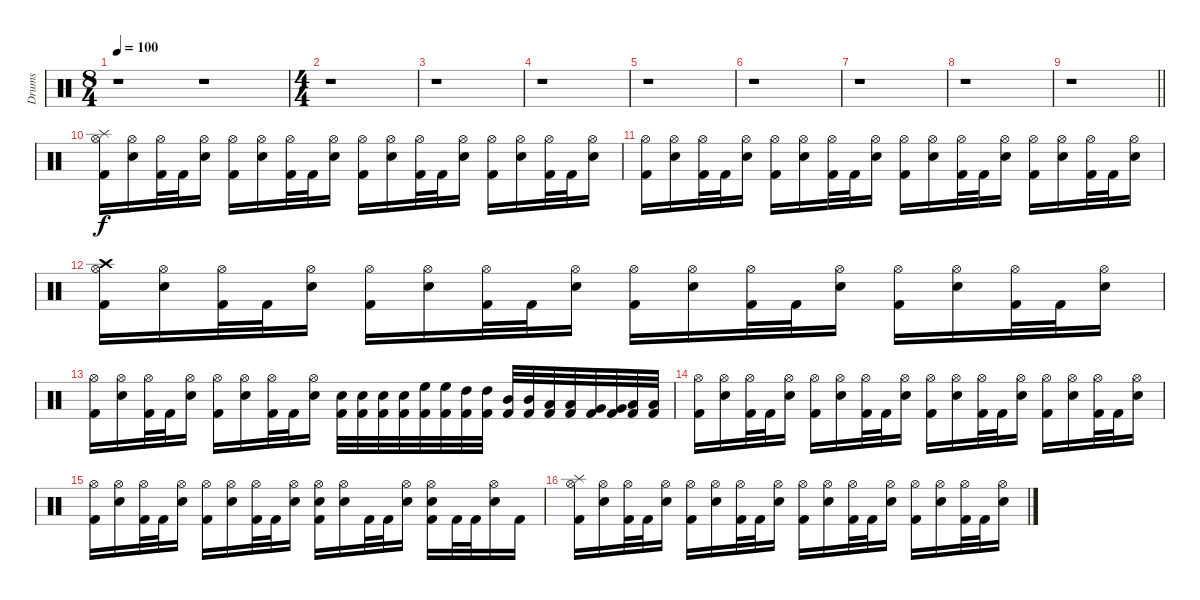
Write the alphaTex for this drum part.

\track ("Drums" "Drums") {instrument percussion}
\staff {score}
\articulation defaults
\ts (8 4)
\tempo 100
\clef neutral
\ks c
r.1{dy f} r.1 |
\ts (4 4)
r.1 |
r.1 |
r.1 |
r.1 |
r.1 |
r.1 |
r.1 |
\barLineRight lightlight
r.1 |
\section ("" "")
("Kick (hit) 2" "Hi-Hat (open)" "Splash (hit)").16 ("Electric Snare (hit)" "Hi-Hat (open)").16 ("Kick (hit) 2" "Hi-Hat (open)").32 "Kick (hit) 2".32 ("Electric Snare (hit)" "Hi-Hat (open)").16 ("Kick (hit) 2" "Hi-Hat (open)").16 ("Electric Snare (hit)" "Hi-Hat (open)").16 ("Kick (hit) 2" "Hi-Hat (open)").32 "Kick (hit) 2".32 ("Electric Snare (hit)" "Hi-Hat (open)").16 ("Kick (hit) 2" "Hi-Hat (open)").16 ("Electric Snare (hit)" "Hi-Hat (open)").16 ("Kick (hit) 2" "Hi-Hat (open)").32 "Kick (hit) 2".32 ("Electric Snare (hit)" "Hi-Hat (open)").16 ("Kick (hit) 2" "Hi-Hat (open)").16 ("Electric Snare (hit)" "Hi-Hat (open)").16 ("Kick (hit) 2" "Hi-Hat (open)").32 "Kick (hit) 2".32 ("Electric Snare (hit)" "Hi-Hat (open)").16 |
("Kick (hit) 2" "Hi-Hat (open)").16 ("Electric Snare (hit)" "Hi-Hat (open)").16 ("Kick (hit) 2" "Hi-Hat (open)").32 "Kick (hit) 2".32 ("Electric Snare (hit)" "Hi-Hat (open)").16 ("Kick (hit) 2" "Hi-Hat (open)").16 ("Electric Snare (hit)" "Hi-Hat (open)").16 ("Kick (hit) 2" "Hi-Hat (open)").32 "Kick (hit) 2".32 ("Electric Snare (hit)" "Hi-Hat (open)").16 ("Kick (hit) 2" "Hi-Hat (open)").16 ("Electric Snare (hit)" "Hi-Hat (open)").16 ("Kick (hit) 2" "Hi-Hat (open)").32 "Kick (hit) 2".32 ("Electric Snare (hit)" "Hi-Hat (open)").16 ("Kick (hit) 2" "Hi-Hat (open)").16 ("Electric Snare (hit)" "Hi-Hat (open)").16 ("Kick (hit) 2" "Hi-Hat (open)").32 "Kick (hit) 2".32 ("Electric Snare (hit)" "Hi-Hat (open)").16 |
("Kick (hit) 2" "Hi-Hat (open)" "Crash high (hit)").16 ("Electric Snare (hit)" "Hi-Hat (open)").16 ("Kick (hit) 2" "Hi-Hat (open)").32 "Kick (hit) 2".32 ("Electric Snare (hit)" "Hi-Hat (open)").16 ("Kick (hit) 2" "Hi-Hat (open)").16 ("Electric Snare (hit)" "Hi-Hat (open)").16 ("Kick (hit) 2" "Hi-Hat (open)").32 "Kick (hit) 2".32 ("Electric Snare (hit)" "Hi-Hat (open)").16 ("Kick (hit) 2" "Hi-Hat (open)").16 ("Electric Snare (hit)" "Hi-Hat (open)").16 ("Kick (hit) 2" "Hi-Hat (open)").32 "Kick (hit) 2".32 ("Electric Snare (hit)" "Hi-Hat (open)").16 ("Kick (hit) 2" "Hi-Hat (open)").16 ("Electric Snare (hit)" "Hi-Hat (open)").16 ("Kick (hit) 2" "Hi-Hat (open)").32 "Kick (hit) 2".32 ("Electric Snare (hit)" "Hi-Hat (open)").16 |
("Kick (hit) 2" "Hi-Hat (open)").16 ("Electric Snare (hit)" "Hi-Hat (open)").16 ("Kick (hit) 2" "Hi-Hat (open)").32 "Kick (hit) 2".32 ("Electric Snare (hit)" "Hi-Hat (open)").16 ("Kick (hit) 2" "Hi-Hat (open)").16 ("Electric Snare (hit)" "Hi-Hat (open)").16 ("Kick (hit) 2" "Hi-Hat (open)").32 "Kick (hit) 2".32 ("Electric Snare (hit)" "Hi-Hat (open)").16 ("Kick (hit) 2" "Electric Snare (hit)").32 ("Kick (hit) 2" "Electric Snare (hit)").32 ("Kick (hit) 2" "Electric Snare (hit)").32 ("Kick (hit) 2" "Electric Snare (hit)").32 ("Kick (hit) 2" "High Floor Tom (hit)").32 ("Kick (hit) 2" "High Floor Tom (hit)").32 ("Kick (hit) 2" "High Tom (hit)").32 ("Kick (hit) 2" "High Tom (hit)").32 ("Kick (hit) 2" "Mid Tom (hit)").32 ("Kick (hit) 2" "Mid Tom (hit)").32 ("Kick (hit) 2" "Low Tom (hit)").32 ("Kick (hit) 2" "Low Tom (hit)").32 ("Kick (hit) 2" "Very Low Tom (hit)").32 ("Kick (hit) 2" "Very Low Tom (hit)").32 ("Kick (hit) 2" "Low Floor Tom (hit)").32 ("Kick (hit) 2" "Low Floor Tom (hit)").32 |
("Kick (hit) 2" "Hi-Hat (open)").16 ("Electric Snare (hit)" "Hi-Hat (open)").16 ("Kick (hit) 2" "Hi-Hat (open)").32 "Kick (hit) 2".32 ("Electric Snare (hit)" "Hi-Hat (open)").16 ("Kick (hit) 2" "Hi-Hat (open)").16 ("Electric Snare (hit)" "Hi-Hat (open)").16 ("Kick (hit) 2" "Hi-Hat (open)").32 "Kick (hit) 2".32 ("Electric Snare (hit)" "Hi-Hat (open)").16 ("Kick (hit) 2" "Hi-Hat (open)").16 ("Electric Snare (hit)" "Hi-Hat (open)").16 ("Kick (hit) 2" "Hi-Hat (open)").32 "Kick (hit) 2".32 ("Electric Snare (hit)" "Hi-Hat (open)").16 ("Kick (hit) 2" "Hi-Hat (open)").16 ("Electric Snare (hit)" "Hi-Hat (open)").16 ("Kick (hit) 2" "Hi-Hat (open)").32 "Kick (hit) 2".32 ("Electric Snare (hit)" "Hi-Hat (open)").16 |
("Kick (hit) 2" "Hi-Hat (open)").16 ("Electric Snare (hit)" "Hi-Hat (open)").16 ("Kick (hit) 2" "Hi-Hat (open)").32 "Kick (hit) 2".32 ("Electric Snare (hit)" "Hi-Hat (open)").16 ("Kick (hit) 2" "Hi-Hat (open)").16 ("Electric Snare (hit)" "Hi-Hat (open)").16 ("Kick (hit) 2" "Hi-Hat (open)").32 "Kick (hit) 2".32 ("Electric Snare (hit)" "Hi-Hat (open)").16 ("Kick (hit) 2" "Electric Snare (hit)" "Hi-Hat (open)").16 ("Electric Snare (hit)" "Hi-Hat (open)").16 "Kick (hit) 2".32 "Kick (hit) 2".32 ("Electric Snare (hit)" "Hi-Hat (open)").16 ("Kick (hit) 2" "Electric Snare (hit)" "Hi-Hat (open)").16 "Kick (hit) 2".32 "Kick (hit) 2".32 ("Electric Snare (hit)" "Hi-Hat (open)").16 "Kick (hit) 2".16 |
("Kick (hit) 2" "Hi-Hat (open)" "Splash (hit)").16 ("Electric Snare (hit)" "Hi-Hat (open)").16 ("Kick (hit) 2" "Hi-Hat (open)").32 "Kick (hit) 2".32 ("Electric Snare (hit)" "Hi-Hat (open)").16 ("Kick (hit) 2" "Hi-Hat (open)").16 ("Electric Snare (hit)" "Hi-Hat (open)").16 ("Kick (hit) 2" "Hi-Hat (open)").32 "Kick (hit) 2".32 ("Electric Snare (hit)" "Hi-Hat (open)").16 ("Kick (hit) 2" "Hi-Hat (open)").16 ("Electric Snare (hit)" "Hi-Hat (open)").16 ("Kick (hit) 2" "Hi-Hat (open)").32 "Kick (hit) 2".32 ("Electric Snare (hit)" "Hi-Hat (open)").16 ("Kick (hit) 2" "Hi-Hat (open)").16 ("Electric Snare (hit)" "Hi-Hat (open)").16 ("Kick (hit) 2" "Hi-Hat (open)").32 "Kick (hit) 2".32 ("Electric Snare (hit)" "Hi-Hat (open)").16
